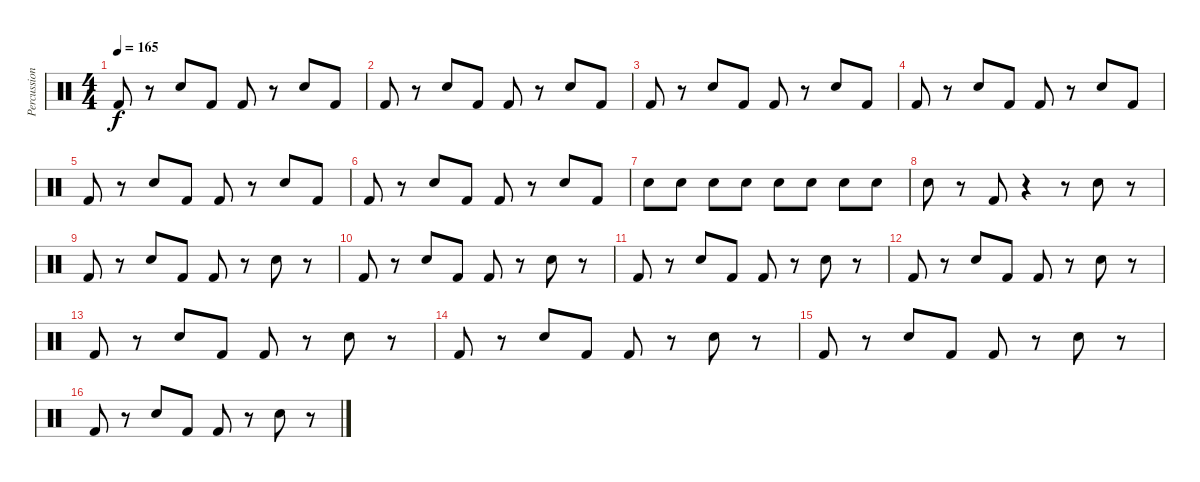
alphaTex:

\track ("Percussion" "Percussion") {instrument percussion}
\staff {score}
\articulation defaults
\ts (4 4)
\tempo 165
\clef neutral
\ks c "Kick (hit) 2".8{dy f}
r.8 "Snare (hit) 2".8 "Kick (hit) 2".8 "Kick (hit) 2".8 r.8 "Snare (hit) 2".8 "Kick (hit) 2".8 |
"Kick (hit) 2".8 r.8 "Snare (hit) 2".8 "Kick (hit) 2".8 "Kick (hit) 2".8 r.8 "Snare (hit) 2".8 "Kick (hit) 2".8 |
"Kick (hit) 2".8 r.8 "Snare (hit) 2".8 "Kick (hit) 2".8 "Kick (hit) 2".8 r.8 "Snare (hit) 2".8 "Kick (hit) 2".8 |
"Kick (hit) 2".8 r.8 "Snare (hit) 2".8 "Kick (hit) 2".8 "Kick (hit) 2".8 r.8 "Snare (hit) 2".8 "Kick (hit) 2".8 |
"Kick (hit) 2".8 r.8 "Snare (hit) 2".8 "Kick (hit) 2".8 "Kick (hit) 2".8 r.8 "Snare (hit) 2".8 "Kick (hit) 2".8 |
"Kick (hit) 2".8 r.8 "Snare (hit) 2".8 "Kick (hit) 2".8 "Kick (hit) 2".8 r.8 "Snare (hit) 2".8 "Kick (hit) 2".8 |
"Snare (hit) 2".8 "Snare (hit) 2".8 "Snare (hit) 2".8 "Snare (hit) 2".8 "Snare (hit) 2".8 "Snare (hit) 2".8 "Snare (hit) 2".8 "Snare (hit) 2".8 |
"Snare (hit) 2".8 r.8 "Kick (hit) 2".8 r.4 r.8 "Snare (hit) 2".8 r.8 |
"Kick (hit) 2".8 r.8 "Snare (hit) 2".8 "Kick (hit) 2".8 "Kick (hit) 2".8 r.8 "Snare (hit) 2".8 r.8 |
"Kick (hit) 2".8 r.8 "Snare (hit) 2".8 "Kick (hit) 2".8 "Kick (hit) 2".8 r.8 "Snare (hit) 2".8 r.8 |
"Kick (hit) 2".8 r.8 "Snare (hit) 2".8 "Kick (hit) 2".8 "Kick (hit) 2".8 r.8 "Snare (hit) 2".8 r.8 |
"Kick (hit) 2".8 r.8 "Snare (hit) 2".8 "Kick (hit) 2".8 "Kick (hit) 2".8 r.8 "Snare (hit) 2".8 r.8 |
"Kick (hit) 2".8 r.8 "Snare (hit) 2".8 "Kick (hit) 2".8 "Kick (hit) 2".8 r.8 "Snare (hit) 2".8 r.8 |
"Kick (hit) 2".8 r.8 "Snare (hit) 2".8 "Kick (hit) 2".8 "Kick (hit) 2".8 r.8 "Snare (hit) 2".8 r.8 |
"Kick (hit) 2".8 r.8 "Snare (hit) 2".8 "Kick (hit) 2".8 "Kick (hit) 2".8 r.8 "Snare (hit) 2".8 r.8 |
"Kick (hit) 2".8 r.8 "Snare (hit) 2".8 "Kick (hit) 2".8 "Kick (hit) 2".8 r.8 "Snare (hit) 2".8 r.8
